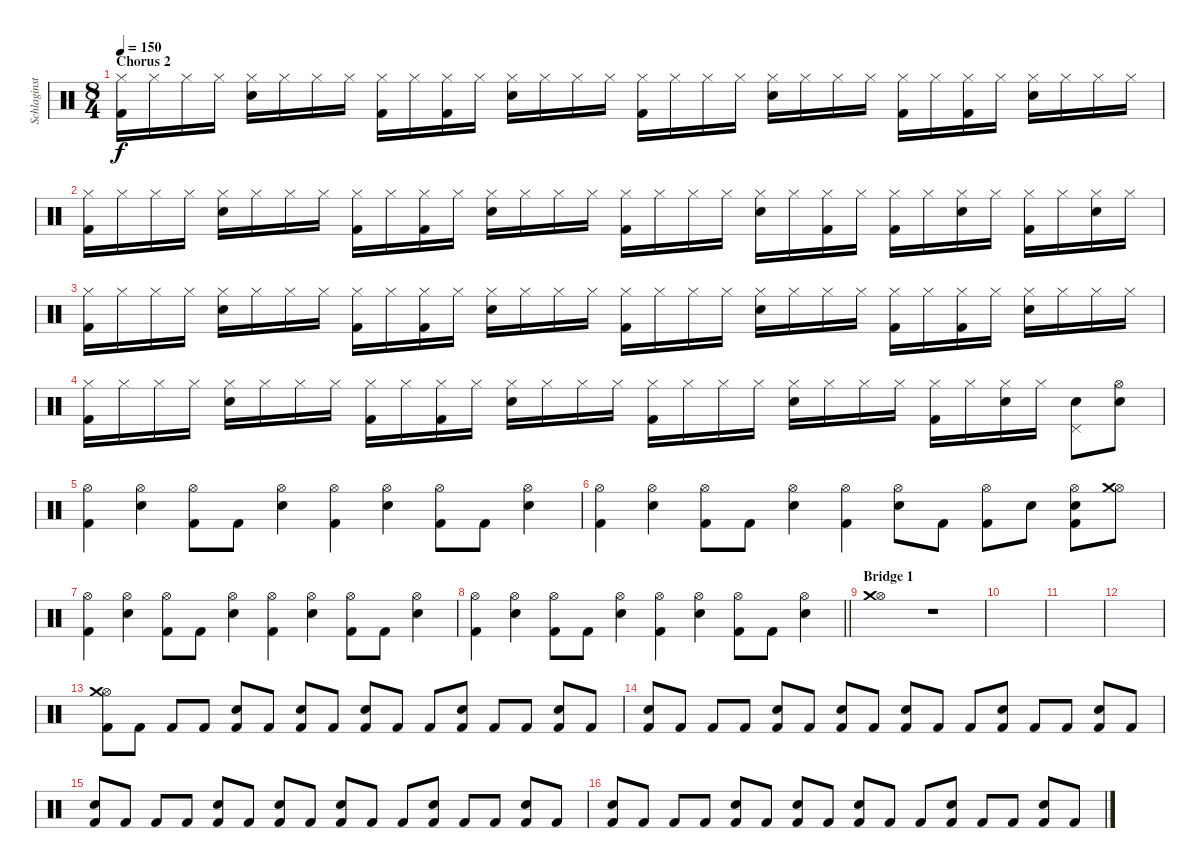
\track ("Schlaginstrumente - Auswahl" "Schlaginst") {instrument percussion}
\staff {score}
\articulation defaults
\ts (8 4)
\section ("" "Chorus 2")
\tempo 150
\clef neutral
\ks c
("Hi-Hat (closed)" "Kick (hit) 2").16{dy f} "Hi-Hat (closed)".16 "Hi-Hat (closed)".16 "Hi-Hat (closed)".16 ("Hi-Hat (closed)" "Electric Snare (hit)").16 "Hi-Hat (closed)".16 "Hi-Hat (closed)".16 "Hi-Hat (closed)".16 ("Hi-Hat (closed)" "Kick (hit) 2").16 "Hi-Hat (closed)".16 ("Hi-Hat (closed)" "Kick (hit) 2").16 "Hi-Hat (closed)".16 ("Hi-Hat (closed)" "Electric Snare (hit)").16 "Hi-Hat (closed)".16 "Hi-Hat (closed)".16 "Hi-Hat (closed)".16 ("Hi-Hat (closed)" "Kick (hit) 2").16 "Hi-Hat (closed)".16 "Hi-Hat (closed)".16 "Hi-Hat (closed)".16 ("Hi-Hat (closed)" "Electric Snare (hit)").16 "Hi-Hat (closed)".16 "Hi-Hat (closed)".16 "Hi-Hat (closed)".16 ("Hi-Hat (closed)" "Kick (hit) 2").16 "Hi-Hat (closed)".16 ("Hi-Hat (closed)" "Kick (hit) 2").16 "Hi-Hat (closed)".16 ("Hi-Hat (closed)" "Electric Snare (hit)").16 "Hi-Hat (closed)".16 "Hi-Hat (closed)".16 "Hi-Hat (closed)".16 |
("Hi-Hat (closed)" "Kick (hit) 2").16 "Hi-Hat (closed)".16 "Hi-Hat (closed)".16 "Hi-Hat (closed)".16 ("Hi-Hat (closed)" "Electric Snare (hit)").16 "Hi-Hat (closed)".16 "Hi-Hat (closed)".16 "Hi-Hat (closed)".16 ("Hi-Hat (closed)" "Kick (hit) 2").16 "Hi-Hat (closed)".16 ("Hi-Hat (closed)" "Kick (hit) 2").16 "Hi-Hat (closed)".16 ("Hi-Hat (closed)" "Electric Snare (hit)").16 "Hi-Hat (closed)".16 "Hi-Hat (closed)".16 "Hi-Hat (closed)".16 ("Hi-Hat (closed)" "Kick (hit) 2").16 "Hi-Hat (closed)".16 "Hi-Hat (closed)".16 "Hi-Hat (closed)".16 ("Hi-Hat (closed)" "Electric Snare (hit)").16 "Hi-Hat (closed)".16 ("Hi-Hat (closed)" "Kick (hit) 2").16 "Hi-Hat (closed)".16 ("Hi-Hat (closed)" "Kick (hit) 2").16 "Hi-Hat (closed)".16 ("Hi-Hat (closed)" "Electric Snare (hit)").16 "Hi-Hat (closed)".16 ("Hi-Hat (closed)" "Kick (hit) 2").16 "Hi-Hat (closed)".16 ("Hi-Hat (closed)" "Electric Snare (hit)").16 "Hi-Hat (closed)".16 |
("Hi-Hat (closed)" "Kick (hit) 2").16 "Hi-Hat (closed)".16 "Hi-Hat (closed)".16 "Hi-Hat (closed)".16 ("Hi-Hat (closed)" "Electric Snare (hit)").16 "Hi-Hat (closed)".16 "Hi-Hat (closed)".16 "Hi-Hat (closed)".16 ("Hi-Hat (closed)" "Kick (hit) 2").16 "Hi-Hat (closed)".16 ("Hi-Hat (closed)" "Kick (hit) 2").16 "Hi-Hat (closed)".16 ("Hi-Hat (closed)" "Electric Snare (hit)").16 "Hi-Hat (closed)".16 "Hi-Hat (closed)".16 "Hi-Hat (closed)".16 ("Hi-Hat (closed)" "Kick (hit) 2").16 "Hi-Hat (closed)".16 "Hi-Hat (closed)".16 "Hi-Hat (closed)".16 ("Hi-Hat (closed)" "Electric Snare (hit)").16 "Hi-Hat (closed)".16 "Hi-Hat (closed)".16 "Hi-Hat (closed)".16 ("Hi-Hat (closed)" "Kick (hit) 2").16 "Hi-Hat (closed)".16 ("Hi-Hat (closed)" "Kick (hit) 2").16 "Hi-Hat (closed)".16 ("Hi-Hat (closed)" "Electric Snare (hit)").16 "Hi-Hat (closed)".16 "Hi-Hat (closed)".16 "Hi-Hat (closed)".16 |
("Hi-Hat (closed)" "Kick (hit) 2").16 "Hi-Hat (closed)".16 "Hi-Hat (closed)".16 "Hi-Hat (closed)".16 ("Hi-Hat (closed)" "Electric Snare (hit)").16 "Hi-Hat (closed)".16 "Hi-Hat (closed)".16 "Hi-Hat (closed)".16 ("Hi-Hat (closed)" "Kick (hit) 2").16 "Hi-Hat (closed)".16 ("Hi-Hat (closed)" "Kick (hit) 2").16 "Hi-Hat (closed)".16 ("Hi-Hat (closed)" "Electric Snare (hit)").16 "Hi-Hat (closed)".16 "Hi-Hat (closed)".16 "Hi-Hat (closed)".16 ("Hi-Hat (closed)" "Kick (hit) 2").16 "Hi-Hat (closed)".16 "Hi-Hat (closed)".16 "Hi-Hat (closed)".16 ("Hi-Hat (closed)" "Electric Snare (hit)").16 "Hi-Hat (closed)".16 "Hi-Hat (closed)".16 "Hi-Hat (closed)".16 ("Hi-Hat (closed)" "Kick (hit) 2").16 "Hi-Hat (closed)".16 ("Hi-Hat (closed)" "Electric Snare (hit)").16 "Hi-Hat (closed)".16 ("Pedal Hi-Hat (hit)" "Electric Snare (hit)").8 ("Hi-Hat (open)" "Electric Snare (hit)").8 |
("Hi-Hat (open)" "Kick (hit) 2").4 ("Hi-Hat (open)" "Electric Snare (hit)").4 ("Hi-Hat (open)" "Kick (hit) 2").8 "Kick (hit) 2".8 ("Hi-Hat (open)" "Electric Snare (hit)").4 ("Hi-Hat (open)" "Kick (hit) 2").4 ("Hi-Hat (open)" "Electric Snare (hit)").4 ("Hi-Hat (open)" "Kick (hit) 2").8 "Kick (hit) 2".8 ("Hi-Hat (open)" "Electric Snare (hit)").4 |
("Hi-Hat (open)" "Kick (hit) 2").4 ("Hi-Hat (open)" "Electric Snare (hit)").4 ("Hi-Hat (open)" "Kick (hit) 2").8 "Kick (hit) 2".8 ("Hi-Hat (open)" "Electric Snare (hit)").4 ("Hi-Hat (open)" "Kick (hit) 2").4 ("Hi-Hat (open)" "Electric Snare (hit)").8 "Kick (hit) 2".8 ("Hi-Hat (open)" "Kick (hit) 2").8 "Electric Snare (hit)".8 ("Hi-Hat (open)" "Electric Snare (hit)" "Kick (hit) 2").8 ("Hi-Hat (open)" "Crash medium (hit)").8 |
("Hi-Hat (open)" "Kick (hit) 2").4 ("Hi-Hat (open)" "Electric Snare (hit)").4 ("Hi-Hat (open)" "Kick (hit) 2").8 "Kick (hit) 2".8 ("Hi-Hat (open)" "Electric Snare (hit)").4 ("Hi-Hat (open)" "Kick (hit) 2").4 ("Hi-Hat (open)" "Electric Snare (hit)").4 ("Hi-Hat (open)" "Kick (hit) 2").8 "Kick (hit) 2".8 ("Hi-Hat (open)" "Electric Snare (hit)").4 |
\barLineRight lightlight
("Hi-Hat (open)" "Kick (hit) 2").4 ("Hi-Hat (open)" "Electric Snare (hit)").4 ("Hi-Hat (open)" "Kick (hit) 2").8 "Kick (hit) 2".8 ("Hi-Hat (open)" "Electric Snare (hit)").4 ("Hi-Hat (open)" "Kick (hit) 2").4 ("Hi-Hat (open)" "Electric Snare (hit)").4 ("Hi-Hat (open)" "Kick (hit) 2").8 "Kick (hit) 2".8 ("Hi-Hat (open)" "Electric Snare (hit)").4 |
\section ("" "Bridge 1")
("Hi-Hat (open)" "Crash medium (hit)").1 r.1 |
|
|
|
("Hi-Hat (open)" "Crash medium (hit)" "Kick (hit) 2").8 "Kick (hit) 2".8 "Kick (hit) 2".8 "Kick (hit) 2".8 ("Electric Snare (hit)" "Kick (hit) 2").8 "Kick (hit) 2".8 ("Electric Snare (hit)" "Kick (hit) 2").8 "Kick (hit) 2".8 ("Electric Snare (hit)" "Kick (hit) 2").8 "Kick (hit) 2".8 "Kick (hit) 2".8 ("Electric Snare (hit)" "Kick (hit) 2").8 "Kick (hit) 2".8 "Kick (hit) 2".8 ("Electric Snare (hit)" "Kick (hit) 2").8 "Kick (hit) 2".8 |
("Electric Snare (hit)" "Kick (hit) 2").8 "Kick (hit) 2".8 "Kick (hit) 2".8 "Kick (hit) 2".8 ("Electric Snare (hit)" "Kick (hit) 2").8 "Kick (hit) 2".8 ("Electric Snare (hit)" "Kick (hit) 2").8 "Kick (hit) 2".8 ("Electric Snare (hit)" "Kick (hit) 2").8 "Kick (hit) 2".8 "Kick (hit) 2".8 ("Electric Snare (hit)" "Kick (hit) 2").8 "Kick (hit) 2".8 "Kick (hit) 2".8 ("Electric Snare (hit)" "Kick (hit) 2").8 "Kick (hit) 2".8 |
("Electric Snare (hit)" "Kick (hit) 2").8 "Kick (hit) 2".8 "Kick (hit) 2".8 "Kick (hit) 2".8 ("Electric Snare (hit)" "Kick (hit) 2").8 "Kick (hit) 2".8 ("Electric Snare (hit)" "Kick (hit) 2").8 "Kick (hit) 2".8 ("Electric Snare (hit)" "Kick (hit) 2").8 "Kick (hit) 2".8 "Kick (hit) 2".8 ("Electric Snare (hit)" "Kick (hit) 2").8 "Kick (hit) 2".8 "Kick (hit) 2".8 ("Electric Snare (hit)" "Kick (hit) 2").8 "Kick (hit) 2".8 |
("Electric Snare (hit)" "Kick (hit) 2").8 "Kick (hit) 2".8 "Kick (hit) 2".8 "Kick (hit) 2".8 ("Electric Snare (hit)" "Kick (hit) 2").8 "Kick (hit) 2".8 ("Electric Snare (hit)" "Kick (hit) 2").8 "Kick (hit) 2".8 ("Electric Snare (hit)" "Kick (hit) 2").8 "Kick (hit) 2".8 "Kick (hit) 2".8 ("Electric Snare (hit)" "Kick (hit) 2").8 "Kick (hit) 2".8 "Kick (hit) 2".8 ("Electric Snare (hit)" "Kick (hit) 2").8 "Kick (hit) 2".8
